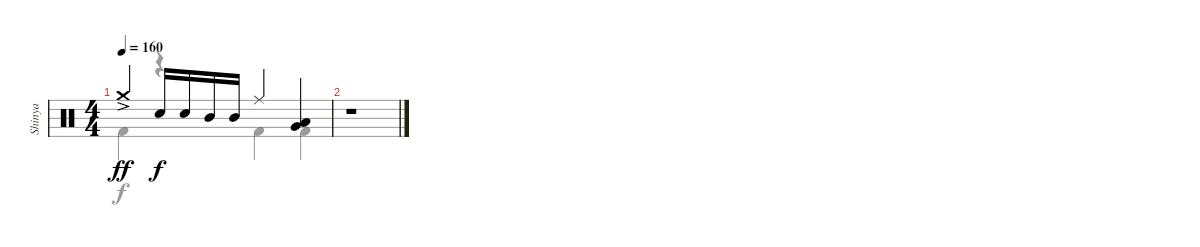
\track ("Shinya" "Shinya") {instrument percussion}
\staff {score}
\articulation defaults
\voice
\ts (4 4)
\tempo 160
\clef neutral
\ks c "Crash medium (hit)"{ac}.4{dy ff beam merge} "Electric Snare (hit)".16{dy f beam merge} "Electric Snare (hit)".16{beam merge} "Mid Tom (hit)".16{beam merge} "Mid Tom (hit)".16 "Ride (middle)".4{beam merge}
("Low Tom (hit)" "Very Low Tom (hit)").4 |
r.1
\voice
\clef neutral
\ottava regular
\simile none
\ks c "Kick (hit) 2".4{dy f beam merge}
r.4{beam merge} "Kick (hit) 2".4{beam merge} "Kick (hit) 2".4 |
r.1
